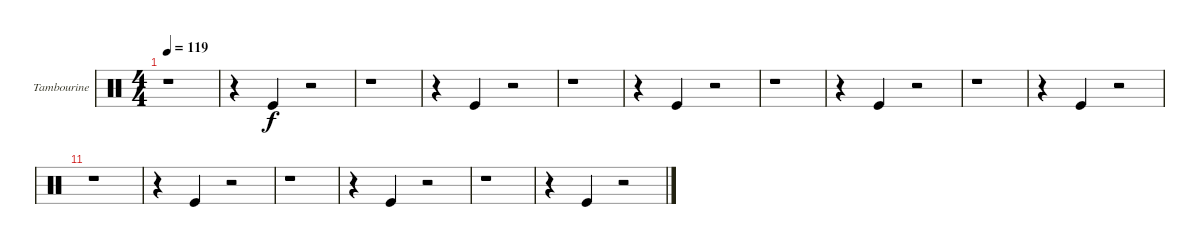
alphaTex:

\defaultSystemsLayout 4
\bracketExtendMode groupsimilarinstruments
\useSystemSignSeparator
\multiBarRest
\multiTrackTrackNamePolicy allsystems
\firstSystemTrackNameMode fullname
\firstSystemTrackNameOrientation horizontal
\otherSystemsTrackNameOrientation horizontal
\defaultBarNumberDisplay FirstOfSystem
\track ("Tambourine" "Tamb.") {multiBarRest instrument percussion}
\staff {score}
\articulation defaults
\ts (4 4)
\tempo 119
\clef neutral
\ks aminor
r.1{dy f} |
r.4 "Kick (hit)".4 r.2 |
r.1 |
r.4 "Kick (hit)".4 r.2 |
r.1 |
r.4 "Kick (hit)".4 r.2 |
r.1 |
r.4 "Kick (hit)".4 r.2 |
r.1 |
r.4 "Kick (hit)".4 r.2 |
r.1 |
r.4 "Kick (hit)".4 r.2 |
r.1 |
r.4 "Kick (hit)".4 r.2 |
r.1 |
r.4 "Kick (hit)".4 r.2
